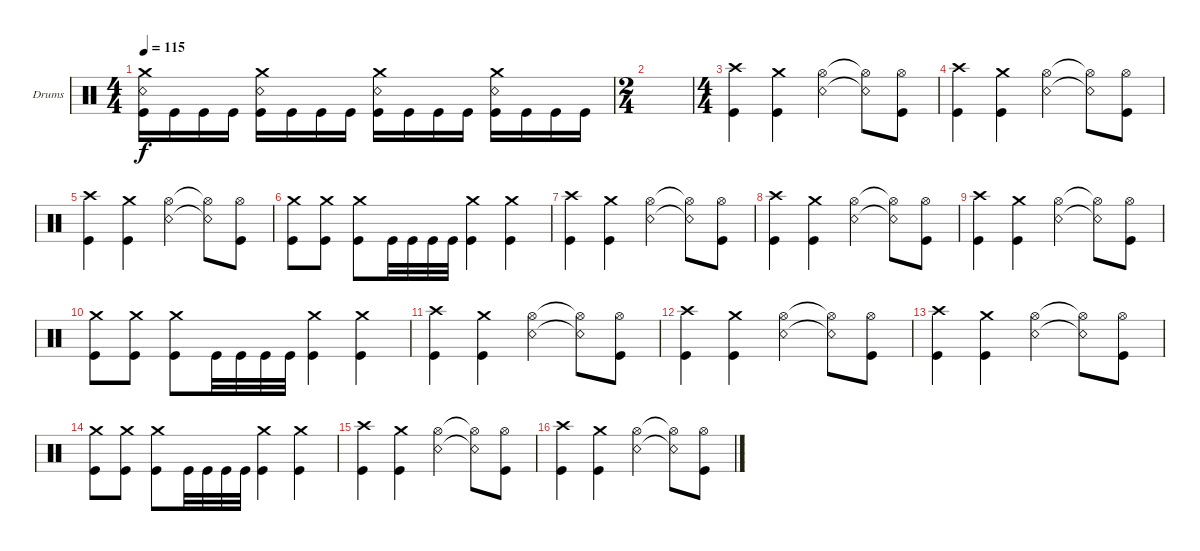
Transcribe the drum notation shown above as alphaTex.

\bracketExtendMode groupsimilarinstruments
\firstSystemTrackNameOrientation horizontal
\otherSystemsTrackNameOrientation horizontal
\track ("Drumkit" "Drums") {instrument percussion}
\staff {score}
\articulation defaults
\ts (4 4)
\tempo 115
\clef neutral
\scale
0.333333
\ks c
("Kick (hit)" "Snare (rim shot)" "Crash medium (hit)").16{dy f} "Kick (hit)".16 "Kick (hit)".16 "Kick (hit)".16 ("Kick (hit)" "Snare (rim shot)" "Crash medium (hit)").16 "Kick (hit)".16 "Kick (hit)".16 "Kick (hit)".16 ("Kick (hit)" "Snare (rim shot)" "Crash medium (hit)").16 "Kick (hit)".16 "Kick (hit)".16 "Kick (hit)".16 ("Kick (hit)" "Snare (rim shot)" "Crash medium (hit)").16 "Kick (hit)".16 "Kick (hit)".16 "Kick (hit)".16 |
\ts (2 4)
\beaming (8 2 2)
\scale
0.391473 |
\ts (4 4)
\beaming (8 2 2 2 2)
\scale
0.391473 ("Kick (hit)" "Crash high (hit)").4 ("Kick (hit)" "Crash medium (hit)").4 ("Snare (rim shot)" "Hi-Hat (open)").4 ("Snare (rim shot)"{t} "Hi-Hat (open)"{t}).8 ("Kick (hit)" "Hi-Hat (open)").8 |
\scale
0.217054 ("Kick (hit)" "Crash high (hit)").4 ("Kick (hit)" "Crash medium (hit)").4 ("Snare (rim shot)" "Hi-Hat (open)").4 ("Snare (rim shot)"{t} "Hi-Hat (open)"{t}).8 ("Kick (hit)" "Hi-Hat (open)").8 |
\scale
0.333333 ("Kick (hit)" "Crash high (hit)").4 ("Kick (hit)" "Crash medium (hit)").4 ("Snare (rim shot)" "Hi-Hat (open)").4 ("Snare (rim shot)"{t} "Hi-Hat (open)"{t}).8 ("Kick (hit)" "Hi-Hat (open)").8 |
\scale
0.333333 ("Kick (hit)" "Crash medium (hit)").8 ("Kick (hit)" "Crash medium (hit)").8 ("Kick (hit)" "Crash medium (hit)").8 "Kick (hit)".32 "Kick (hit)".32 "Kick (hit)".32 "Kick (hit)".32 ("Kick (hit)" "Crash medium (hit)").4 ("Kick (hit)" "Crash medium (hit)").4 |
\scale
0.333333 ("Kick (hit)" "Crash high (hit)").4 ("Kick (hit)" "Crash medium (hit)").4 ("Snare (rim shot)" "Hi-Hat (open)").4 ("Snare (rim shot)"{t} "Hi-Hat (open)"{t}).8 ("Kick (hit)" "Hi-Hat (open)").8 |
\scale
0.333333 ("Kick (hit)" "Crash high (hit)").4 ("Kick (hit)" "Crash medium (hit)").4 ("Snare (rim shot)" "Hi-Hat (open)").4 ("Snare (rim shot)"{t} "Hi-Hat (open)"{t}).8 ("Kick (hit)" "Hi-Hat (open)").8 |
\scale
0.333333 ("Kick (hit)" "Crash high (hit)").4 ("Kick (hit)" "Crash medium (hit)").4 ("Snare (rim shot)" "Hi-Hat (open)").4 ("Snare (rim shot)"{t} "Hi-Hat (open)"{t}).8 ("Kick (hit)" "Hi-Hat (open)").8 |
\scale
0.333333 ("Kick (hit)" "Crash medium (hit)").8 ("Kick (hit)" "Crash medium (hit)").8 ("Kick (hit)" "Crash medium (hit)").8 "Kick (hit)".32 "Kick (hit)".32 "Kick (hit)".32 "Kick (hit)".32 ("Kick (hit)" "Crash medium (hit)").4 ("Kick (hit)" "Crash medium (hit)").4 |
\scale
0.333333 ("Kick (hit)" "Crash high (hit)").4 ("Kick (hit)" "Crash medium (hit)").4 ("Snare (rim shot)" "Hi-Hat (open)").4 ("Snare (rim shot)"{t} "Hi-Hat (open)"{t}).8 ("Kick (hit)" "Hi-Hat (open)").8 |
\scale
0.333333 ("Kick (hit)" "Crash high (hit)").4 ("Kick (hit)" "Crash medium (hit)").4 ("Snare (rim shot)" "Hi-Hat (open)").4 ("Snare (rim shot)"{t} "Hi-Hat (open)"{t}).8 ("Kick (hit)" "Hi-Hat (open)").8 |
\scale
0.333333 ("Kick (hit)" "Crash high (hit)").4 ("Kick (hit)" "Crash medium (hit)").4 ("Snare (rim shot)" "Hi-Hat (open)").4 ("Snare (rim shot)"{t} "Hi-Hat (open)"{t}).8 ("Kick (hit)" "Hi-Hat (open)").8 |
\scale
0.333333 ("Kick (hit)" "Crash medium (hit)").8 ("Kick (hit)" "Crash medium (hit)").8 ("Kick (hit)" "Crash medium (hit)").8 "Kick (hit)".32 "Kick (hit)".32 "Kick (hit)".32 "Kick (hit)".32 ("Kick (hit)" "Crash medium (hit)").4 ("Kick (hit)" "Crash medium (hit)").4 |
\scale
0.333333 ("Kick (hit)" "Crash high (hit)").4 ("Kick (hit)" "Crash medium (hit)").4 ("Snare (rim shot)" "Hi-Hat (open)").4 ("Snare (rim shot)"{t} "Hi-Hat (open)"{t}).8 ("Kick (hit)" "Hi-Hat (open)").8 |
\scale
0.333333 ("Kick (hit)" "Crash high (hit)").4 ("Kick (hit)" "Crash medium (hit)").4 ("Snare (rim shot)" "Hi-Hat (open)").4 ("Snare (rim shot)"{t} "Hi-Hat (open)"{t}).8 ("Kick (hit)" "Hi-Hat (open)").8
